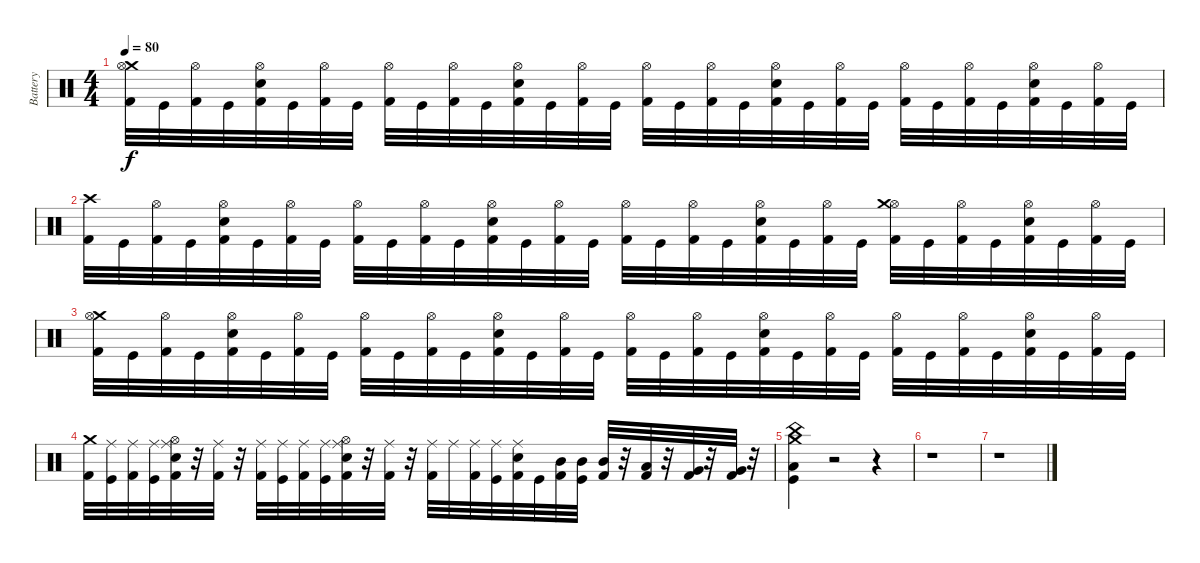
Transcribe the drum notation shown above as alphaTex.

\track ("Battery" "Battery") {instrument percussion}
\staff {score}
\articulation defaults
\ts (4 4)
\tempo 80
\clef neutral
\ks c
("Kick (hit) 2" "Crash medium (hit)" "Hi-Hat (open)").32{dy f} "Kick (hit)".32 ("Hi-Hat (open)" "Kick (hit) 2").32 "Kick (hit)".32 ("Snare (hit) 2" "Kick (hit) 2" "Hi-Hat (open)").32 "Kick (hit)".32 ("Kick (hit) 2" "Hi-Hat (open)").32 "Kick (hit)".32 ("Hi-Hat (open)" "Kick (hit) 2").32 "Kick (hit)".32 ("Kick (hit) 2" "Hi-Hat (open)").32 "Kick (hit)".32 ("Snare (hit) 2" "Kick (hit) 2" "Hi-Hat (open)").32 "Kick (hit)".32 ("Kick (hit) 2" "Hi-Hat (open)").32 "Kick (hit)".32 ("Hi-Hat (open)" "Kick (hit) 2").32 "Kick (hit)".32 ("Kick (hit) 2" "Hi-Hat (open)").32 "Kick (hit)".32 ("Kick (hit) 2" "Snare (hit) 2" "Hi-Hat (open)").32 "Kick (hit)".32 ("Hi-Hat (open)" "Kick (hit) 2").32 "Kick (hit)".32 ("Kick (hit) 2" "Hi-Hat (open)").32 "Kick (hit)".32 ("Hi-Hat (open)" "Kick (hit) 2").32 "Kick (hit)".32 ("Hi-Hat (open)" "Kick (hit) 2" "Snare (hit) 2").32 "Kick (hit)".32 ("Kick (hit) 2" "Hi-Hat (open)").32 "Kick (hit)".32 |
("Crash high (hit)" "Kick (hit) 2").32 "Kick (hit)".32 ("Hi-Hat (open)" "Kick (hit) 2").32 "Kick (hit)".32 ("Kick (hit) 2" "Snare (hit) 2" "Hi-Hat (open)").32 "Kick (hit)".32 ("Hi-Hat (open)" "Kick (hit) 2").32 "Kick (hit)".32 ("Kick (hit) 2" "Hi-Hat (open)").32 "Kick (hit)".32 ("Kick (hit) 2" "Hi-Hat (open)").32 "Kick (hit)".32 ("Hi-Hat (open)" "Snare (hit) 2" "Kick (hit) 2").32 "Kick (hit)".32 ("Hi-Hat (open)" "Kick (hit) 2").32 "Kick (hit)".32 ("Kick (hit) 2" "Hi-Hat (open)").32 "Kick (hit)".32 ("Hi-Hat (open)" "Kick (hit) 2").32 "Kick (hit)".32 ("Hi-Hat (open)" "Snare (hit) 2" "Kick (hit) 2").32 "Kick (hit)".32 ("Hi-Hat (open)" "Kick (hit) 2").32 "Kick (hit)".32 ("Hi-Hat (open)" "Kick (hit) 2" "Crash medium (hit)").32 "Kick (hit)".32 ("Hi-Hat (open)" "Kick (hit) 2").32 "Kick (hit)".32 ("Snare (hit) 2" "Kick (hit) 2" "Hi-Hat (open)").32 "Kick (hit)".32 ("Hi-Hat (open)" "Kick (hit) 2").32 "Kick (hit)".32 |
("Crash medium (hit)" "Hi-Hat (open)" "Kick (hit) 2").32 "Kick (hit)".32 ("Hi-Hat (open)" "Kick (hit) 2").32 "Kick (hit)".32 ("Hi-Hat (open)" "Kick (hit) 2" "Snare (hit) 2").32 "Kick (hit)".32 ("Hi-Hat (open)" "Kick (hit) 2").32 "Kick (hit)".32 ("Hi-Hat (open)" "Kick (hit) 2").32 "Kick (hit)".32 ("Kick (hit) 2" "Hi-Hat (open)").32 "Kick (hit)".32 ("Hi-Hat (open)" "Snare (hit) 2" "Kick (hit) 2").32 "Kick (hit)".32 ("Hi-Hat (open)" "Kick (hit) 2").32 "Kick (hit)".32 ("Kick (hit) 2" "Hi-Hat (open)").32 "Kick (hit)".32 ("Hi-Hat (open)" "Kick (hit) 2").32 "Kick (hit)".32 ("Snare (hit) 2" "Kick (hit) 2" "Hi-Hat (open)").32 "Kick (hit)".32 ("Hi-Hat (open)" "Kick (hit) 2").32 "Kick (hit)".32 ("Kick (hit) 2" "Hi-Hat (open)").32 "Kick (hit)".32 ("Kick (hit) 2" "Hi-Hat (open)").32 "Kick (hit)".32 ("Kick (hit) 2" "Snare (hit) 2" "Hi-Hat (open)").32 "Kick (hit)".32 ("Kick (hit) 2" "Hi-Hat (open)").32 "Kick (hit)".32 |
("Kick (hit) 2" "Crash medium (hit)").32 ("Ride (middle)" "Kick (hit)").32 ("Kick (hit) 2" "Ride (middle)").32 ("Kick (hit)" "Ride (middle)").32 ("Kick (hit) 2" "Ride (middle)" "Snare (hit) 2" "Hi-Hat (open)").32 r.32 ("Ride (middle)" "Kick (hit) 2").32 r.32 ("Ride (middle)" "Kick (hit) 2").32 ("Ride (middle)" "Kick (hit)").32 ("Kick (hit) 2" "Ride (middle)").32 ("Kick (hit)" "Ride (middle)").32 ("Hi-Hat (open)" "Ride (middle)" "Kick (hit) 2" "Snare (hit) 2").32 r.32 ("Kick (hit) 2" "Ride (middle)").32 r.32 ("Kick (hit) 2" "Ride (middle)").32 "Ride (middle)".32 ("Kick (hit) 2" "Ride (middle)").32 ("Kick (hit)" "Ride (middle)").32 ("Kick (hit) 2" "Ride (middle)" "Snare (hit) 2").32 "Kick (hit)".32 ("Kick (hit) 2" "Mid Tom (hit)").32 ("Kick (hit)" "Mid Tom (hit)").32 ("Kick (hit) 2" "Mid Tom (hit)").32 r.32 ("Kick (hit) 2" "Low Tom (hit)").32 r.32 ("Very Low Tom (hit)" "Kick (hit) 2").32 r.32 ("Kick (hit) 2" "Very Low Tom (hit)").32 r.32 |
("Kick (hit)" "Low Floor Tom (hit)" "China (hit)" "Crash medium (hit)").4 r.2 r.4 |
r.1 |
r.1
